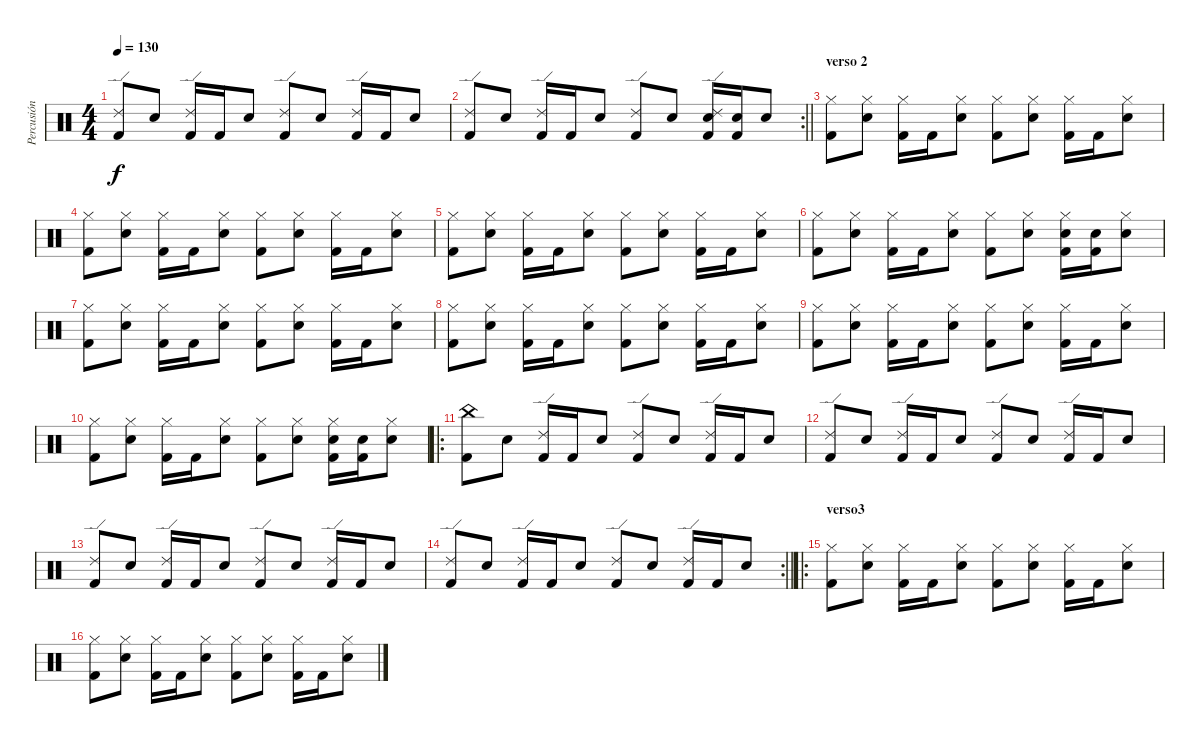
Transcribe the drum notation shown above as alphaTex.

\track ("Percusión" "Percusión") {instrument percussion}
\staff {score}
\articulation defaults
\ts (4 4)
\tempo 130
\clef neutral
\ks c
("Ride (edge) 2" "Kick (hit) 2").8{dy f} "Electric Snare (hit)".8 ("Ride (edge) 2" "Kick (hit) 2").16 "Kick (hit) 2".16 "Electric Snare (hit)".8 ("Ride (edge) 2" "Kick (hit) 2").8 "Electric Snare (hit)".8 ("Ride (edge) 2" "Kick (hit) 2").16 "Kick (hit) 2".16 "Electric Snare (hit)".8 |
\rc 2
\barLineRight lightlight
("Ride (edge) 2" "Kick (hit) 2").8 "Electric Snare (hit)".8 ("Ride (edge) 2" "Kick (hit) 2").16 "Kick (hit) 2".16 "Electric Snare (hit)".8 ("Ride (edge) 2" "Kick (hit) 2").8 "Electric Snare (hit)".8 ("Ride (edge) 2" "Electric Snare (hit)" "Kick (hit) 2").16 ("Electric Snare (hit)" "Kick (hit) 2").16 "Electric Snare (hit)".8 |
\section ("" "verso 2")
("Hi-Hat (closed)" "Kick (hit) 2").8 ("Hi-Hat (closed)" "Electric Snare (hit)").8 ("Hi-Hat (closed)" "Kick (hit) 2").16 "Kick (hit) 2".16 ("Hi-Hat (closed)" "Electric Snare (hit)").8 ("Hi-Hat (closed)" "Kick (hit) 2").8 ("Hi-Hat (closed)" "Electric Snare (hit)").8 ("Hi-Hat (closed)" "Kick (hit) 2").16 "Kick (hit) 2".16 ("Hi-Hat (closed)" "Electric Snare (hit)").8 |
("Hi-Hat (closed)" "Kick (hit) 2").8 ("Hi-Hat (closed)" "Electric Snare (hit)").8 ("Hi-Hat (closed)" "Kick (hit) 2").16 "Kick (hit) 2".16 ("Hi-Hat (closed)" "Electric Snare (hit)").8 ("Hi-Hat (closed)" "Kick (hit) 2").8 ("Hi-Hat (closed)" "Electric Snare (hit)").8 ("Hi-Hat (closed)" "Kick (hit) 2").16 "Kick (hit) 2".16 ("Hi-Hat (closed)" "Electric Snare (hit)").8 |
("Hi-Hat (closed)" "Kick (hit) 2").8 ("Hi-Hat (closed)" "Electric Snare (hit)").8 ("Hi-Hat (closed)" "Kick (hit) 2").16 "Kick (hit) 2".16 ("Hi-Hat (closed)" "Electric Snare (hit)").8 ("Hi-Hat (closed)" "Kick (hit) 2").8 ("Hi-Hat (closed)" "Electric Snare (hit)").8 ("Hi-Hat (closed)" "Kick (hit) 2").16 "Kick (hit) 2".16 ("Hi-Hat (closed)" "Electric Snare (hit)").8 |
("Hi-Hat (closed)" "Kick (hit) 2").8 ("Hi-Hat (closed)" "Electric Snare (hit)").8 ("Hi-Hat (closed)" "Kick (hit) 2").16 "Kick (hit) 2".16 ("Hi-Hat (closed)" "Electric Snare (hit)").8 ("Hi-Hat (closed)" "Kick (hit) 2").8 ("Hi-Hat (closed)" "Electric Snare (hit)").8 ("Hi-Hat (closed)" "Electric Snare (hit)" "Kick (hit) 2").16 ("Electric Snare (hit)" "Kick (hit) 2").16 ("Hi-Hat (closed)" "Electric Snare (hit)").8 |
("Hi-Hat (closed)" "Kick (hit) 2").8 ("Hi-Hat (closed)" "Electric Snare (hit)").8 ("Hi-Hat (closed)" "Kick (hit) 2").16 "Kick (hit) 2".16 ("Hi-Hat (closed)" "Electric Snare (hit)").8 ("Hi-Hat (closed)" "Kick (hit) 2").8 ("Hi-Hat (closed)" "Electric Snare (hit)").8 ("Hi-Hat (closed)" "Kick (hit) 2").16 "Kick (hit) 2".16 ("Hi-Hat (closed)" "Electric Snare (hit)").8 |
("Hi-Hat (closed)" "Kick (hit) 2").8 ("Hi-Hat (closed)" "Electric Snare (hit)").8 ("Hi-Hat (closed)" "Kick (hit) 2").16 "Kick (hit) 2".16 ("Hi-Hat (closed)" "Electric Snare (hit)").8 ("Hi-Hat (closed)" "Kick (hit) 2").8 ("Hi-Hat (closed)" "Electric Snare (hit)").8 ("Hi-Hat (closed)" "Kick (hit) 2").16 "Kick (hit) 2".16 ("Hi-Hat (closed)" "Electric Snare (hit)").8 |
("Hi-Hat (closed)" "Kick (hit) 2").8 ("Hi-Hat (closed)" "Electric Snare (hit)").8 ("Hi-Hat (closed)" "Kick (hit) 2").16 "Kick (hit) 2".16 ("Hi-Hat (closed)" "Electric Snare (hit)").8 ("Hi-Hat (closed)" "Kick (hit) 2").8 ("Hi-Hat (closed)" "Electric Snare (hit)").8 ("Hi-Hat (closed)" "Kick (hit) 2").16 "Kick (hit) 2".16 ("Hi-Hat (closed)" "Electric Snare (hit)").8 |
("Hi-Hat (closed)" "Kick (hit) 2").8 ("Hi-Hat (closed)" "Electric Snare (hit)").8 ("Hi-Hat (closed)" "Kick (hit) 2").16 "Kick (hit) 2".16 ("Hi-Hat (closed)" "Electric Snare (hit)").8 ("Hi-Hat (closed)" "Kick (hit) 2").8 ("Hi-Hat (closed)" "Electric Snare (hit)").8 ("Hi-Hat (closed)" "Electric Snare (hit)" "Kick (hit) 2").16 ("Electric Snare (hit)" "Kick (hit) 2").16 ("Hi-Hat (closed)" "Electric Snare (hit)").8 |
\ro
("China (hit)" "Kick (hit) 2").8 "Electric Snare (hit)".8 ("Ride (edge) 2" "Kick (hit) 2").16 "Kick (hit) 2".16 "Electric Snare (hit)".8 ("Ride (edge) 2" "Kick (hit) 2").8 "Electric Snare (hit)".8 ("Ride (edge) 2" "Kick (hit) 2").16 "Kick (hit) 2".16 "Electric Snare (hit)".8 |
("Ride (edge) 2" "Kick (hit) 2").8 "Electric Snare (hit)".8 ("Ride (edge) 2" "Kick (hit) 2").16 "Kick (hit) 2".16 "Electric Snare (hit)".8 ("Ride (edge) 2" "Kick (hit) 2").8 "Electric Snare (hit)".8 ("Ride (edge) 2" "Kick (hit) 2").16 "Kick (hit) 2".16 "Electric Snare (hit)".8 |
("Ride (edge) 2" "Kick (hit) 2").8 "Electric Snare (hit)".8 ("Ride (edge) 2" "Kick (hit) 2").16 "Kick (hit) 2".16 "Electric Snare (hit)".8 ("Ride (edge) 2" "Kick (hit) 2").8 "Electric Snare (hit)".8 ("Ride (edge) 2" "Kick (hit) 2").16 "Kick (hit) 2".16 "Electric Snare (hit)".8 |
\rc 2
\barLineRight lightlight
("Ride (edge) 2" "Kick (hit) 2").8 "Electric Snare (hit)".8 ("Ride (edge) 2" "Kick (hit) 2").16 "Kick (hit) 2".16 "Electric Snare (hit)".8 ("Ride (edge) 2" "Kick (hit) 2").8 "Electric Snare (hit)".8 ("Ride (edge) 2" "Kick (hit) 2").16 "Kick (hit) 2".16 "Electric Snare (hit)".8 |
\ro
\section ("" "verso3")
("Hi-Hat (closed)" "Kick (hit) 2").8 ("Hi-Hat (closed)" "Electric Snare (hit)").8 ("Hi-Hat (closed)" "Kick (hit) 2").16 "Kick (hit) 2".16 ("Hi-Hat (closed)" "Electric Snare (hit)").8 ("Hi-Hat (closed)" "Kick (hit) 2").8 ("Hi-Hat (closed)" "Electric Snare (hit)").8 ("Hi-Hat (closed)" "Kick (hit) 2").16 "Kick (hit) 2".16 ("Hi-Hat (closed)" "Electric Snare (hit)").8 |
("Hi-Hat (closed)" "Kick (hit) 2").8 ("Hi-Hat (closed)" "Electric Snare (hit)").8 ("Hi-Hat (closed)" "Kick (hit) 2").16 "Kick (hit) 2".16 ("Hi-Hat (closed)" "Electric Snare (hit)").8 ("Hi-Hat (closed)" "Kick (hit) 2").8 ("Hi-Hat (closed)" "Electric Snare (hit)").8 ("Hi-Hat (closed)" "Kick (hit) 2").16 "Kick (hit) 2".16 ("Hi-Hat (closed)" "Electric Snare (hit)").8
